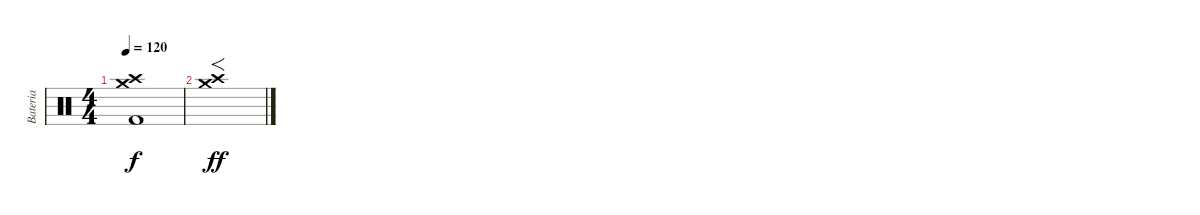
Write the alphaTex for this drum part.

\track ("Bateria" "Bateria") {instrument percussion}
\staff {score}
\articulation defaults
\ts (4 4)
\tempo 120
\clef neutral
\ks c
("Crash medium (hit)" "Crash high (hit)" "Kick (hit) 2").1{dy f} |
("Crash medium (hit)" "Crash high (hit)").1{f dy ff}
